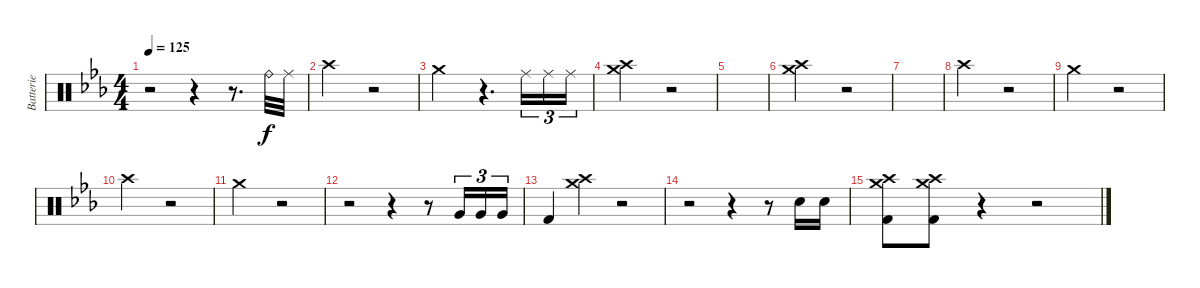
\track ("Batterie" "Batterie") {instrument percussion}
\staff {score}
\articulation defaults
\ts (4 4)
\tempo 125
\clef neutral
\ks eb
r.2{dy f} r.4 r.8{d} "Ride (bell)".32 "Ride (middle)".32 |
"Crash high (hit)".2 r.2 |
"Crash medium (hit)".2 r.4{d} "Ride (middle)".16{tu (3 2)} "Ride (middle)".16{tu (3 2)} "Ride (middle)".16{tu (3 2)} |
("Crash high (hit)" "Crash medium (hit)").2 r.2 |
|
("Crash high (hit)" "Crash medium (hit)").2 r.2 |
|
"Crash high (hit)".2 r.2 |
"Crash medium (hit)".2 r.2 |
"Crash high (hit)".2 r.2 |
"Crash medium (hit)".2 r.2 |
r.2 r.4 r.8 "Very Low Tom (hit)".16{tu (3 2)} "Very Low Tom (hit)".16{tu (3 2)} "Very Low Tom (hit)".16{tu (3 2)} |
"Kick (hit) 2".4 ("Crash high (hit)" "Crash medium (hit)").4 r.2 |
r.2 r.4 r.8 "Electric Snare (hit)".16 "Electric Snare (hit)".16 |
("Crash high (hit)" "Crash medium (hit)" "Kick (hit) 2").8 ("Crash high (hit)" "Crash medium (hit)" "Kick (hit) 2").8 r.4 r.2
